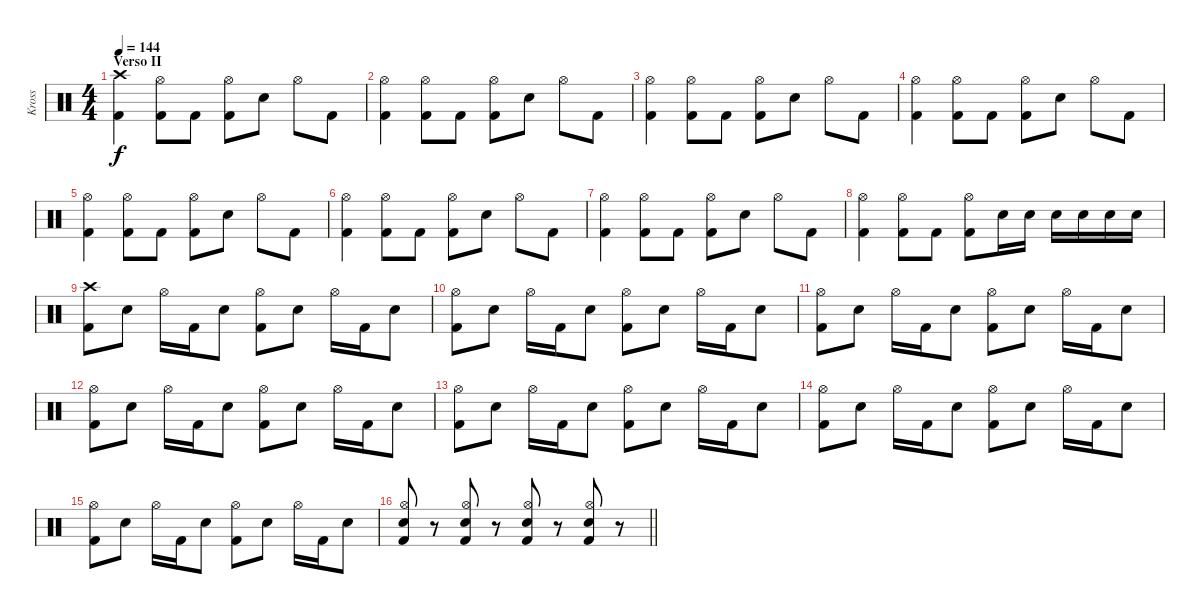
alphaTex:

\track ("Kross" "Kross") {instrument percussion}
\staff {score}
\articulation defaults
\ts (4 4)
\section ("" "Verso II")
\tempo 144
\clef neutral
\ks c
("Crash high (hit)" "Kick (hit) 2").4{dy f} ("Hi-Hat (open)" "Kick (hit) 2").8 "Kick (hit) 2".8 ("Hi-Hat (open)" "Kick (hit) 2").8 "Electric Snare (hit)".8 "Hi-Hat (open)".8 "Kick (hit) 2".8 |
("Hi-Hat (open)" "Kick (hit) 2").4 ("Hi-Hat (open)" "Kick (hit) 2").8 "Kick (hit) 2".8 ("Hi-Hat (open)" "Kick (hit) 2").8 "Electric Snare (hit)".8 "Hi-Hat (open)".8 "Kick (hit) 2".8 |
("Hi-Hat (open)" "Kick (hit) 2").4 ("Hi-Hat (open)" "Kick (hit) 2").8 "Kick (hit) 2".8 ("Hi-Hat (open)" "Kick (hit) 2").8 "Electric Snare (hit)".8 "Hi-Hat (open)".8 "Kick (hit) 2".8 |
("Hi-Hat (open)" "Kick (hit) 2").4 ("Hi-Hat (open)" "Kick (hit) 2").8 "Kick (hit) 2".8 ("Hi-Hat (open)" "Kick (hit) 2").8 "Electric Snare (hit)".8 "Hi-Hat (open)".8 "Kick (hit) 2".8 |
("Hi-Hat (open)" "Kick (hit) 2").4 ("Hi-Hat (open)" "Kick (hit) 2").8 "Kick (hit) 2".8 ("Hi-Hat (open)" "Kick (hit) 2").8 "Electric Snare (hit)".8 "Hi-Hat (open)".8 "Kick (hit) 2".8 |
("Hi-Hat (open)" "Kick (hit) 2").4 ("Hi-Hat (open)" "Kick (hit) 2").8 "Kick (hit) 2".8 ("Hi-Hat (open)" "Kick (hit) 2").8 "Electric Snare (hit)".8 "Hi-Hat (open)".8 "Kick (hit) 2".8 |
("Hi-Hat (open)" "Kick (hit) 2").4 ("Hi-Hat (open)" "Kick (hit) 2").8 "Kick (hit) 2".8 ("Hi-Hat (open)" "Kick (hit) 2").8 "Electric Snare (hit)".8 "Hi-Hat (open)".8 "Kick (hit) 2".8 |
("Hi-Hat (open)" "Kick (hit) 2").4 ("Hi-Hat (open)" "Kick (hit) 2").8 "Kick (hit) 2".8 ("Hi-Hat (open)" "Kick (hit) 2").8 "Electric Snare (hit)".16 "Electric Snare (hit)".16 "Electric Snare (hit)".16 "Electric Snare (hit)".16 "Electric Snare (hit)".16 "Electric Snare (hit)".16 |
("Crash high (hit)" "Kick (hit) 2").8 "Electric Snare (hit)".8 "Hi-Hat (open)".16 "Kick (hit) 2".16 "Electric Snare (hit)".8 ("Hi-Hat (open)" "Kick (hit) 2").8 "Electric Snare (hit)".8 "Hi-Hat (open)".16 "Kick (hit) 2".16 "Electric Snare (hit)".8 |
("Hi-Hat (open)" "Kick (hit) 2").8 "Electric Snare (hit)".8 "Hi-Hat (open)".16 "Kick (hit) 2".16 "Electric Snare (hit)".8 ("Hi-Hat (open)" "Kick (hit) 2").8 "Electric Snare (hit)".8 "Hi-Hat (open)".16 "Kick (hit) 2".16 "Electric Snare (hit)".8 |
("Hi-Hat (open)" "Kick (hit) 2").8 "Electric Snare (hit)".8 "Hi-Hat (open)".16 "Kick (hit) 2".16 "Electric Snare (hit)".8 ("Hi-Hat (open)" "Kick (hit) 2").8 "Electric Snare (hit)".8 "Hi-Hat (open)".16 "Kick (hit) 2".16 "Electric Snare (hit)".8 |
("Hi-Hat (open)" "Kick (hit) 2").8 "Electric Snare (hit)".8 "Hi-Hat (open)".16 "Kick (hit) 2".16 "Electric Snare (hit)".8 ("Hi-Hat (open)" "Kick (hit) 2").8 "Electric Snare (hit)".8 "Hi-Hat (open)".16 "Kick (hit) 2".16 "Electric Snare (hit)".8 |
("Hi-Hat (open)" "Kick (hit) 2").8 "Electric Snare (hit)".8 "Hi-Hat (open)".16 "Kick (hit) 2".16 "Electric Snare (hit)".8 ("Hi-Hat (open)" "Kick (hit) 2").8 "Electric Snare (hit)".8 "Hi-Hat (open)".16 "Kick (hit) 2".16 "Electric Snare (hit)".8 |
("Hi-Hat (open)" "Kick (hit) 2").8 "Electric Snare (hit)".8 "Hi-Hat (open)".16 "Kick (hit) 2".16 "Electric Snare (hit)".8 ("Hi-Hat (open)" "Kick (hit) 2").8 "Electric Snare (hit)".8 "Hi-Hat (open)".16 "Kick (hit) 2".16 "Electric Snare (hit)".8 |
("Hi-Hat (open)" "Kick (hit) 2").8 "Electric Snare (hit)".8 "Hi-Hat (open)".16 "Kick (hit) 2".16 "Electric Snare (hit)".8 ("Hi-Hat (open)" "Kick (hit) 2").8 "Electric Snare (hit)".8 "Hi-Hat (open)".16 "Kick (hit) 2".16 "Electric Snare (hit)".8 |
\barLineRight lightlight
("Hi-Hat (open)" "Electric Snare (hit)" "Kick (hit) 2").8 r.8 ("Hi-Hat (open)" "Electric Snare (hit)" "Kick (hit) 2").8 r.8 ("Hi-Hat (open)" "Electric Snare (hit)" "Kick (hit) 2").8 r.8 ("Hi-Hat (open)" "Electric Snare (hit)" "Kick (hit) 2").8 r.8
